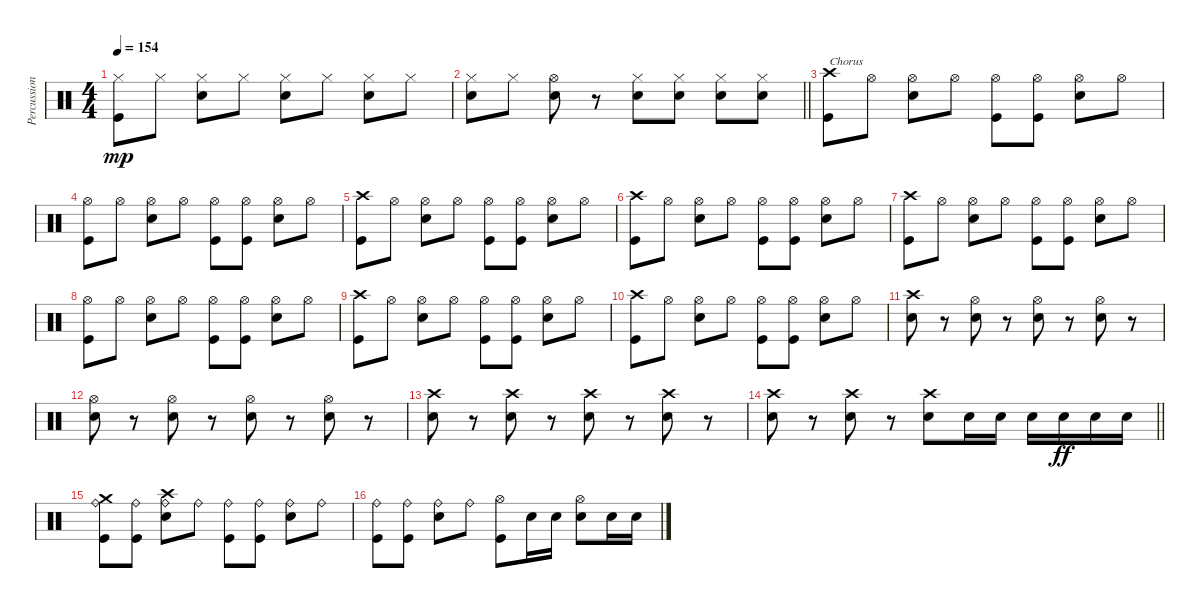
\track ("Percussion" "Percussion") {instrument percussion}
\staff {score}
\articulation defaults
\ts (4 4)
\tempo 154
\clef neutral
\ks c
("Hi-Hat (closed)" "Kick (hit)").8{dy mp} "Hi-Hat (closed)".8 ("Hi-Hat (closed)" "Electric Snare (hit)").8 "Hi-Hat (closed)".8 ("Hi-Hat (closed)" "Electric Snare (hit)").8 "Hi-Hat (closed)".8 ("Hi-Hat (closed)" "Electric Snare (hit)").8 "Hi-Hat (closed)".8 |
\barLineRight lightlight
("Hi-Hat (closed)" "Electric Snare (hit)").8 "Hi-Hat (closed)".8 ("Hi-Hat (open)" "Electric Snare (hit)").8 r.8 ("Hi-Hat (closed)" "Electric Snare (hit)").8 ("Hi-Hat (closed)" "Electric Snare (hit)").8 ("Hi-Hat (closed)" "Electric Snare (hit)").8 ("Hi-Hat (closed)" "Electric Snare (hit)").8 |
("Crash high (hit)" "Kick (hit)").8{txt "Chorus"} "Hi-Hat (open)".8 ("Hi-Hat (open)" "Electric Snare (hit)").8 "Hi-Hat (open)".8 ("Hi-Hat (open)" "Kick (hit)").8 ("Hi-Hat (open)" "Kick (hit)").8 ("Hi-Hat (open)" "Electric Snare (hit)").8 "Hi-Hat (open)".8 |
("Hi-Hat (open)" "Kick (hit)").8 "Hi-Hat (open)".8 ("Hi-Hat (open)" "Electric Snare (hit)").8 "Hi-Hat (open)".8 ("Hi-Hat (open)" "Kick (hit)").8 ("Hi-Hat (open)" "Kick (hit)").8 ("Hi-Hat (open)" "Electric Snare (hit)").8 "Hi-Hat (open)".8 |
("Crash high (hit)" "Kick (hit)").8 "Hi-Hat (open)".8 ("Hi-Hat (open)" "Electric Snare (hit)").8 "Hi-Hat (open)".8 ("Hi-Hat (open)" "Kick (hit)").8 ("Hi-Hat (open)" "Kick (hit)").8 ("Hi-Hat (open)" "Electric Snare (hit)").8 "Hi-Hat (open)".8 |
("Crash high (hit)" "Kick (hit)").8 "Hi-Hat (open)".8 ("Hi-Hat (open)" "Electric Snare (hit)").8 "Hi-Hat (open)".8 ("Hi-Hat (open)" "Kick (hit)").8 ("Hi-Hat (open)" "Kick (hit)").8 ("Hi-Hat (open)" "Electric Snare (hit)").8 "Hi-Hat (open)".8 |
("Crash high (hit)" "Kick (hit)").8 "Hi-Hat (open)".8 ("Hi-Hat (open)" "Electric Snare (hit)").8 "Hi-Hat (open)".8 ("Hi-Hat (open)" "Kick (hit)").8 ("Hi-Hat (open)" "Kick (hit)").8 ("Hi-Hat (open)" "Electric Snare (hit)").8 "Hi-Hat (open)".8 |
("Hi-Hat (open)" "Kick (hit)").8 "Hi-Hat (open)".8 ("Hi-Hat (open)" "Electric Snare (hit)").8 "Hi-Hat (open)".8 ("Hi-Hat (open)" "Kick (hit)").8 ("Hi-Hat (open)" "Kick (hit)").8 ("Hi-Hat (open)" "Electric Snare (hit)").8 "Hi-Hat (open)".8 |
("Crash high (hit)" "Kick (hit)").8 "Hi-Hat (open)".8 ("Hi-Hat (open)" "Electric Snare (hit)").8 "Hi-Hat (open)".8 ("Hi-Hat (open)" "Kick (hit)").8 ("Hi-Hat (open)" "Kick (hit)").8 ("Hi-Hat (open)" "Electric Snare (hit)").8 "Hi-Hat (open)".8 |
("Crash high (hit)" "Kick (hit)").8 "Hi-Hat (open)".8 ("Hi-Hat (open)" "Electric Snare (hit)").8 "Hi-Hat (open)".8 ("Hi-Hat (open)" "Kick (hit)").8 ("Hi-Hat (open)" "Kick (hit)").8 ("Hi-Hat (open)" "Electric Snare (hit)").8 "Hi-Hat (open)".8 |
("Crash high (hit)" "Electric Snare (hit)").8 r.8 ("Hi-Hat (open)" "Electric Snare (hit)").8 r.8 ("Hi-Hat (open)" "Electric Snare (hit)").8 r.8 ("Hi-Hat (open)" "Electric Snare (hit)").8 r.8 |
("Hi-Hat (open)" "Electric Snare (hit)").8 r.8 ("Hi-Hat (open)" "Electric Snare (hit)").8 r.8 ("Hi-Hat (open)" "Electric Snare (hit)").8 r.8 ("Hi-Hat (open)" "Electric Snare (hit)").8 r.8 |
("Crash high (hit)" "Electric Snare (hit)").8 r.8 ("Crash high (hit)" "Electric Snare (hit)").8 r.8 ("Crash high (hit)" "Electric Snare (hit)").8 r.8 ("Crash high (hit)" "Electric Snare (hit)").8 r.8 |
\barLineRight lightlight
("Crash high (hit)" "Electric Snare (hit)").8 r.8 ("Crash high (hit)" "Electric Snare (hit)").8 r.8 ("Crash high (hit)" "Electric Snare (hit)").8 "Electric Snare (hit)".16 "Electric Snare (hit)".16 "Electric Snare (hit)".16 "Electric Snare (hit)".16{dy ff} "Electric Snare (hit)".16 "Electric Snare (hit)".16 |
("Crash medium (hit)" "Ride (bell)" "Kick (hit)").8 ("Ride (bell)" "Kick (hit)").8 ("Crash high (hit)" "Ride (bell)" "Electric Snare (hit)").8 "Ride (bell)".8 ("Ride (bell)" "Kick (hit)").8 ("Ride (bell)" "Kick (hit)").8 ("Ride (bell)" "Electric Snare (hit)").8 "Ride (bell)".8 |
("Ride (bell)" "Kick (hit)").8 ("Ride (bell)" "Kick (hit)").8 ("Ride (bell)" "Electric Snare (hit)").8 "Ride (bell)".8 ("Hi-Hat (open)" "Kick (hit)").8 "Electric Snare (hit)".16 "Electric Snare (hit)".16 ("Hi-Hat (open)" "Electric Snare (hit)").8 "Electric Snare (hit)".16 "Electric Snare (hit)".16
